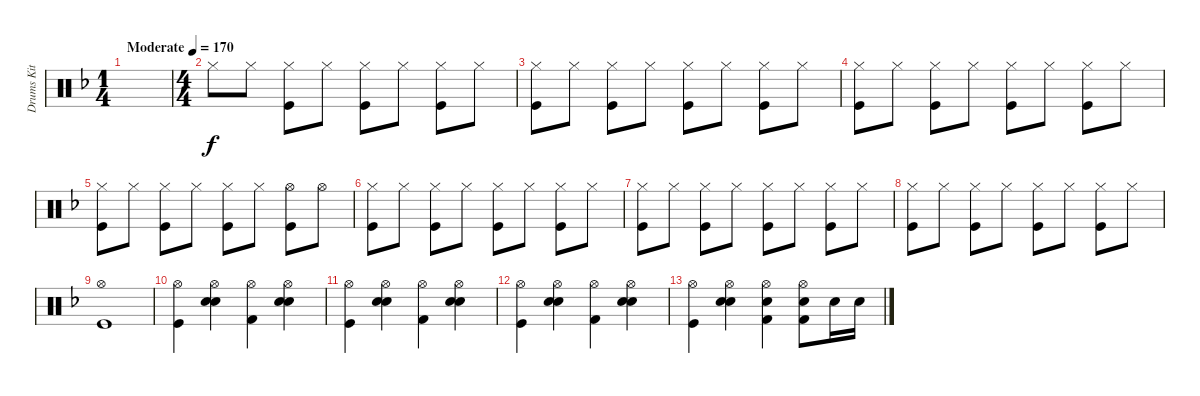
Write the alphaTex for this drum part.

\track ("Drums Kit" "Drums Kit") {instrument percussion bank 127}
\staff {score}
\articulation defaults
\ts (1 4)
\tempo (170 "Moderate")
\clef neutral
\ks dminor
|
\ts (4 4)
"Hi-Hat (closed)".8 "Hi-Hat (closed)".8 ("Hi-Hat (closed)" "Kick (hit)").8 "Hi-Hat (closed)".8 ("Hi-Hat (closed)" "Kick (hit)").8 "Hi-Hat (closed)".8 ("Hi-Hat (closed)" "Kick (hit)").8 "Hi-Hat (closed)".8 |
("Hi-Hat (closed)" "Kick (hit)").8 "Hi-Hat (closed)".8 ("Hi-Hat (closed)" "Kick (hit)").8 "Hi-Hat (closed)".8 ("Hi-Hat (closed)" "Kick (hit)").8 "Hi-Hat (closed)".8 ("Hi-Hat (closed)" "Kick (hit)").8 "Hi-Hat (closed)".8 |
("Hi-Hat (closed)" "Kick (hit)").8 "Hi-Hat (closed)".8 ("Hi-Hat (closed)" "Kick (hit)").8 "Hi-Hat (closed)".8 ("Hi-Hat (closed)" "Kick (hit)").8 "Hi-Hat (closed)".8 ("Hi-Hat (closed)" "Kick (hit)").8 "Hi-Hat (closed)".8 |
("Hi-Hat (closed)" "Kick (hit)").8 "Hi-Hat (closed)".8 ("Hi-Hat (closed)" "Kick (hit)").8 "Hi-Hat (closed)".8 ("Hi-Hat (closed)" "Kick (hit)").8 "Hi-Hat (closed)".8 ("Hi-Hat (open)" "Kick (hit)").8 "Hi-Hat (open)".8 |
("Hi-Hat (closed)" "Kick (hit)").8 "Hi-Hat (closed)".8 ("Hi-Hat (closed)" "Kick (hit)").8 "Hi-Hat (closed)".8 ("Hi-Hat (closed)" "Kick (hit)").8 "Hi-Hat (closed)".8 ("Hi-Hat (closed)" "Kick (hit)").8 "Hi-Hat (closed)".8 |
("Hi-Hat (closed)" "Kick (hit)").8 "Hi-Hat (closed)".8 ("Hi-Hat (closed)" "Kick (hit)").8 "Hi-Hat (closed)".8 ("Hi-Hat (closed)" "Kick (hit)").8 "Hi-Hat (closed)".8 ("Hi-Hat (closed)" "Kick (hit)").8 "Hi-Hat (closed)".8 |
("Hi-Hat (closed)" "Kick (hit)").8 "Hi-Hat (closed)".8 ("Hi-Hat (closed)" "Kick (hit)").8 "Hi-Hat (closed)".8 ("Hi-Hat (closed)" "Kick (hit)").8 "Hi-Hat (closed)".8 ("Hi-Hat (closed)" "Kick (hit)").8 "Hi-Hat (closed)".8 |
("Hi-Hat (open)" "Kick (hit)").1 |
("Hi-Hat (open)" "Kick (hit)").4 ("Hi-Hat (open)" "Snare (hit) 2" "Snare (hit) 2").4 ("Hi-Hat (open)" "Kick (hit) 2").4 ("Hi-Hat (open)" "Snare (hit) 2" "Snare (hit) 2").4 |
("Hi-Hat (open)" "Kick (hit)").4 ("Hi-Hat (open)" "Snare (hit) 2" "Snare (hit) 2").4 ("Hi-Hat (open)" "Kick (hit) 2").4 ("Hi-Hat (open)" "Snare (hit) 2" "Snare (hit) 2").4 |
("Hi-Hat (open)" "Kick (hit)").4 ("Hi-Hat (open)" "Snare (hit) 2" "Snare (hit) 2").4 ("Hi-Hat (open)" "Kick (hit) 2").4 ("Hi-Hat (open)" "Snare (hit) 2" "Snare (hit) 2").4 |
("Hi-Hat (open)" "Kick (hit)").4 ("Hi-Hat (open)" "Snare (hit) 2" "Snare (hit) 2").4 ("Hi-Hat (open)" "Snare (hit) 2" "Kick (hit) 2").4 ("Hi-Hat (open)" "Snare (hit) 2" "Kick (hit) 2").8 "Snare (hit) 2".16 "Snare (hit) 2".16
